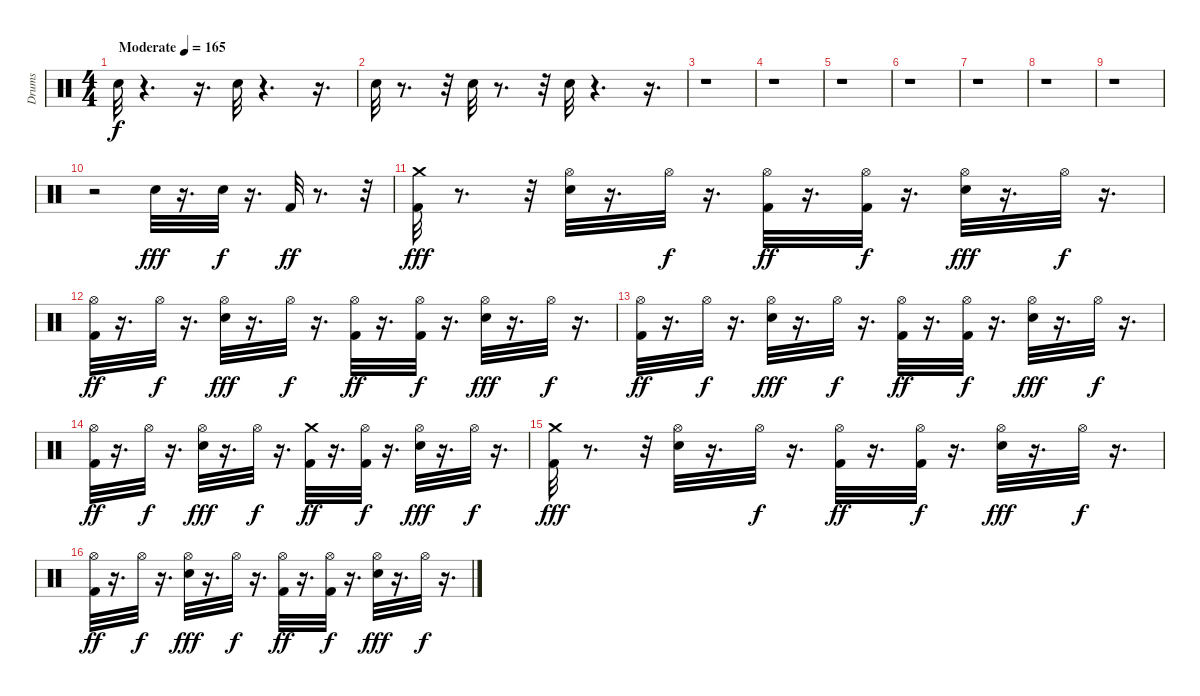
\track ("Drums" "Drums") {instrument percussion}
\staff {score}
\articulation defaults
\ts (4 4)
\tempo (165 "Moderate")
\clef neutral
\ks c "Hand Clap (hit)".32{dy f}
r.4{d} r.16{d} "Hand Clap (hit)".32 r.4{d} r.16{d} |
"Hand Clap (hit)".32 r.8{d} r.32 "Hand Clap (hit)".32 r.8{d} r.32 "Hand Clap (hit)".32 r.4{d} r.16{d} |
r.1 |
r.1 |
r.1 |
r.1 |
r.1 |
r.1 |
r.1 |
r.2 "Snare (hit) 2".32{dy fff} r.16{d} "Snare (hit) 2".32{dy f} r.16{d} "Kick (hit) 2".32{dy ff} r.8{d} r.32 |
("Kick (hit) 2" "Crash medium (hit)").32{dy fff} r.8{d} r.32 ("Hi-Hat (open)" "Snare (hit) 2").32 r.16{d} "Hi-Hat (open)".32{dy f} r.16{d} ("Hi-Hat (open)" "Kick (hit) 2").32{dy ff} r.16{d} ("Hi-Hat (open)" "Kick (hit) 2").32{dy f} r.16{d} ("Hi-Hat (open)" "Snare (hit) 2").32{dy fff} r.16{d} "Hi-Hat (open)".32{dy f} r.16{d} |
("Kick (hit) 2" "Hi-Hat (open)").32{dy ff} r.16{d} "Hi-Hat (open)".32{dy f} r.16{d} ("Snare (hit) 2" "Hi-Hat (open)").32{dy fff} r.16{d} "Hi-Hat (open)".32{dy f} r.16{d} ("Kick (hit) 2" "Hi-Hat (open)").32{dy ff} r.16{d} ("Kick (hit) 2" "Hi-Hat (open)").32{dy f} r.16{d} ("Snare (hit) 2" "Hi-Hat (open)").32{dy fff} r.16{d} "Hi-Hat (open)".32{dy f} r.16{d} |
("Kick (hit) 2" "Hi-Hat (open)").32{dy ff} r.16{d} "Hi-Hat (open)".32{dy f} r.16{d} ("Snare (hit) 2" "Hi-Hat (open)").32{dy fff} r.16{d} "Hi-Hat (open)".32{dy f} r.16{d} ("Kick (hit) 2" "Hi-Hat (open)").32{dy ff} r.16{d} ("Kick (hit) 2" "Hi-Hat (open)").32{dy f} r.16{d} ("Snare (hit) 2" "Hi-Hat (open)").32{dy fff} r.16{d} "Hi-Hat (open)".32{dy f} r.16{d} |
("Kick (hit) 2" "Hi-Hat (open)").32{dy ff} r.16{d} "Hi-Hat (open)".32{dy f} r.16{d} ("Snare (hit) 2" "Hi-Hat (open)").32{dy fff} r.16{d} "Hi-Hat (open)".32{dy f} r.16{d} ("Crash medium (hit)" "Kick (hit) 2").32{dy ff} r.16{d} ("Kick (hit) 2" "Hi-Hat (open)").32{dy f} r.16{d} ("Snare (hit) 2" "Hi-Hat (open)").32{dy fff} r.16{d} "Hi-Hat (open)".32{dy f} r.16{d} |
("Kick (hit) 2" "Crash medium (hit)").32{dy fff} r.8{d} r.32 ("Hi-Hat (open)" "Snare (hit) 2").32 r.16{d} "Hi-Hat (open)".32{dy f} r.16{d} ("Hi-Hat (open)" "Kick (hit) 2").32{dy ff} r.16{d} ("Hi-Hat (open)" "Kick (hit) 2").32{dy f} r.16{d} ("Hi-Hat (open)" "Snare (hit) 2").32{dy fff} r.16{d} "Hi-Hat (open)".32{dy f} r.16{d} |
("Kick (hit) 2" "Hi-Hat (open)").32{dy ff} r.16{d} "Hi-Hat (open)".32{dy f} r.16{d} ("Snare (hit) 2" "Hi-Hat (open)").32{dy fff} r.16{d} "Hi-Hat (open)".32{dy f} r.16{d} ("Kick (hit) 2" "Hi-Hat (open)").32{dy ff} r.16{d} ("Kick (hit) 2" "Hi-Hat (open)").32{dy f} r.16{d} ("Snare (hit) 2" "Hi-Hat (open)").32{dy fff} r.16{d} "Hi-Hat (open)".32{dy f} r.16{d}
